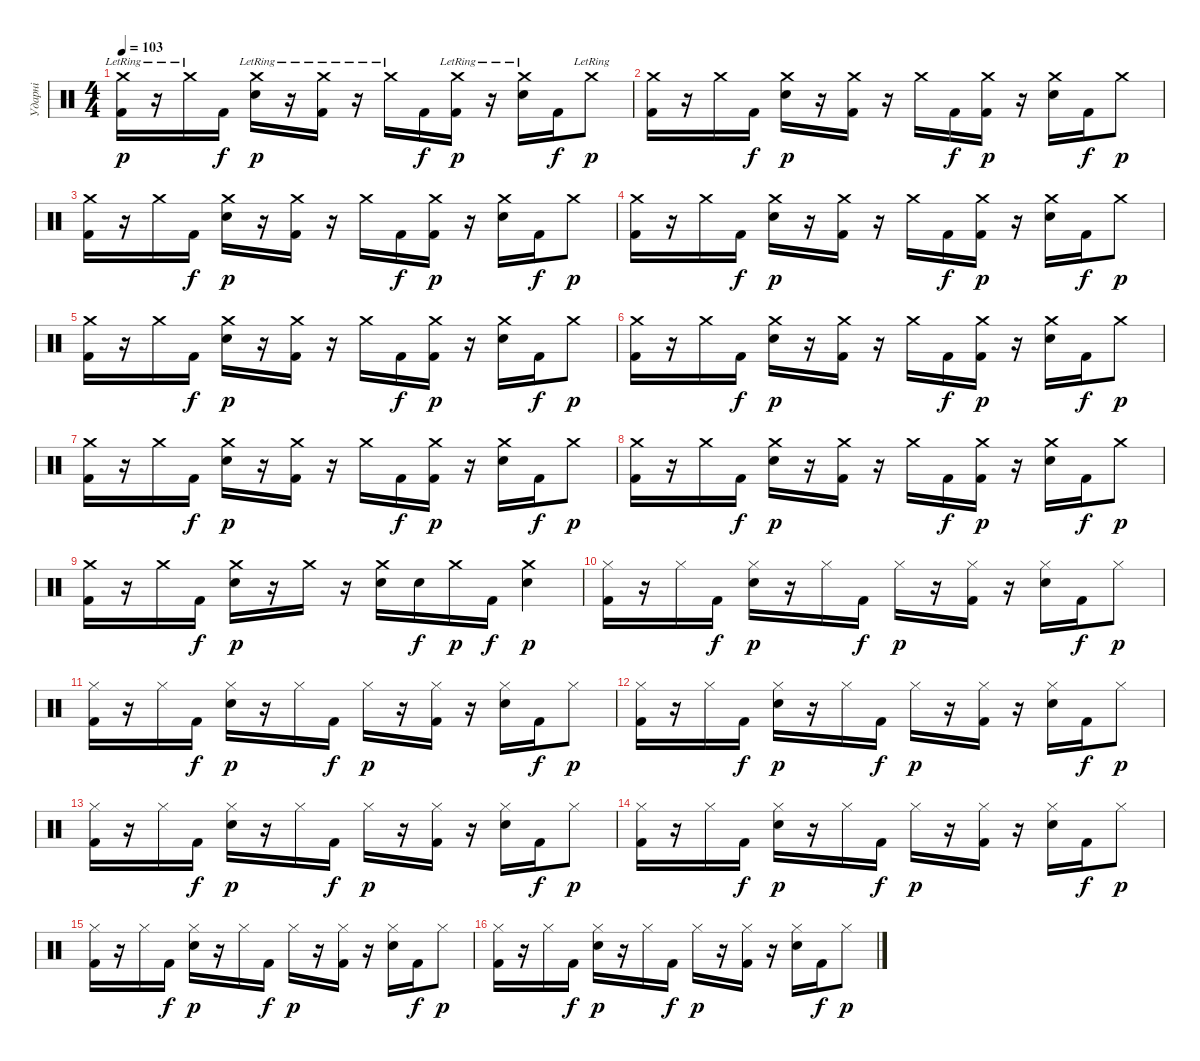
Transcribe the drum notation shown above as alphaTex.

\track ("Ударні" "Ударні") {instrument percussion}
\staff {score}
\articulation defaults
\ts (4 4)
\tempo 103
\clef neutral
\ks c
("Crash medium (hit)"{lr} "Kick (hit) 2").16{dy p} r.16 "Crash medium (hit)"{lr}.16 "Kick (hit) 2".16{dy f} ("Crash medium (hit)"{lr} "Electric Snare (hit)").16{dy p} r.16 ("Crash medium (hit)"{lr} "Kick (hit) 2").16 r.16 "Crash medium (hit)"{lr}.16 "Kick (hit) 2".16{dy f} ("Crash medium (hit)"{lr} "Kick (hit) 2").16{dy p} r.16 ("Crash medium (hit)"{lr} "Electric Snare (hit)").16 "Kick (hit) 2".16{dy f} "Crash medium (hit)"{lr}.8{dy p} |
("Crash medium (hit)" "Kick (hit) 2").16 r.16 "Crash medium (hit)".16 "Kick (hit) 2".16{dy f} ("Crash medium (hit)" "Electric Snare (hit)").16{dy p} r.16 ("Crash medium (hit)" "Kick (hit) 2").16 r.16 "Crash medium (hit)".16 "Kick (hit) 2".16{dy f} ("Crash medium (hit)" "Kick (hit) 2").16{dy p} r.16 ("Crash medium (hit)" "Electric Snare (hit)").16 "Kick (hit) 2".16{dy f} "Crash medium (hit)".8{dy p} |
("Crash medium (hit)" "Kick (hit) 2").16 r.16 "Crash medium (hit)".16 "Kick (hit) 2".16{dy f} ("Crash medium (hit)" "Electric Snare (hit)").16{dy p} r.16 ("Crash medium (hit)" "Kick (hit) 2").16 r.16 "Crash medium (hit)".16 "Kick (hit) 2".16{dy f} ("Crash medium (hit)" "Kick (hit) 2").16{dy p} r.16 ("Crash medium (hit)" "Electric Snare (hit)").16 "Kick (hit) 2".16{dy f} "Crash medium (hit)".8{dy p} |
("Crash medium (hit)" "Kick (hit) 2").16 r.16 "Crash medium (hit)".16 "Kick (hit) 2".16{dy f} ("Crash medium (hit)" "Electric Snare (hit)").16{dy p} r.16 ("Crash medium (hit)" "Kick (hit) 2").16 r.16 "Crash medium (hit)".16 "Kick (hit) 2".16{dy f} ("Crash medium (hit)" "Kick (hit) 2").16{dy p} r.16 ("Crash medium (hit)" "Electric Snare (hit)").16 "Kick (hit) 2".16{dy f} "Crash medium (hit)".8{dy p} |
("Crash medium (hit)" "Kick (hit) 2").16 r.16 "Crash medium (hit)".16 "Kick (hit) 2".16{dy f} ("Crash medium (hit)" "Electric Snare (hit)").16{dy p} r.16 ("Crash medium (hit)" "Kick (hit) 2").16 r.16 "Crash medium (hit)".16 "Kick (hit) 2".16{dy f} ("Crash medium (hit)" "Kick (hit) 2").16{dy p} r.16 ("Crash medium (hit)" "Electric Snare (hit)").16 "Kick (hit) 2".16{dy f} "Crash medium (hit)".8{dy p} |
("Crash medium (hit)" "Kick (hit) 2").16 r.16 "Crash medium (hit)".16 "Kick (hit) 2".16{dy f} ("Crash medium (hit)" "Electric Snare (hit)").16{dy p} r.16 ("Crash medium (hit)" "Kick (hit) 2").16 r.16 "Crash medium (hit)".16 "Kick (hit) 2".16{dy f} ("Crash medium (hit)" "Kick (hit) 2").16{dy p} r.16 ("Crash medium (hit)" "Electric Snare (hit)").16 "Kick (hit) 2".16{dy f} "Crash medium (hit)".8{dy p} |
("Crash medium (hit)" "Kick (hit) 2").16 r.16 "Crash medium (hit)".16 "Kick (hit) 2".16{dy f} ("Crash medium (hit)" "Electric Snare (hit)").16{dy p} r.16 ("Crash medium (hit)" "Kick (hit) 2").16 r.16 "Crash medium (hit)".16 "Kick (hit) 2".16{dy f} ("Crash medium (hit)" "Kick (hit) 2").16{dy p} r.16 ("Crash medium (hit)" "Electric Snare (hit)").16 "Kick (hit) 2".16{dy f} "Crash medium (hit)".8{dy p} |
("Crash medium (hit)" "Kick (hit) 2").16 r.16 "Crash medium (hit)".16 "Kick (hit) 2".16{dy f} ("Crash medium (hit)" "Electric Snare (hit)").16{dy p} r.16 ("Crash medium (hit)" "Kick (hit) 2").16 r.16 "Crash medium (hit)".16 "Kick (hit) 2".16{dy f} ("Crash medium (hit)" "Kick (hit) 2").16{dy p} r.16 ("Crash medium (hit)" "Electric Snare (hit)").16 "Kick (hit) 2".16{dy f} "Crash medium (hit)".8{dy p} |
("Crash medium (hit)" "Kick (hit) 2").16 r.16 "Crash medium (hit)".16 "Kick (hit) 2".16{dy f} ("Crash medium (hit)" "Electric Snare (hit)").16{dy p} r.16 "Crash medium (hit)".16 r.16 ("Crash medium (hit)" "Electric Snare (hit)").16 "Electric Snare (hit)".16{dy f} "Crash medium (hit)".16{dy p} "Kick (hit) 2".16{dy f} ("Crash medium (hit)" "Electric Snare (hit)").4{dy p} |
("Hi-Hat (closed)" "Kick (hit) 2").16 r.16 "Hi-Hat (closed)".16 "Kick (hit) 2".16{dy f} ("Hi-Hat (closed)" "Electric Snare (hit)").16{dy p} r.16 "Hi-Hat (closed)".16 "Kick (hit) 2".16{dy f} "Hi-Hat (closed)".16{dy p} r.16 ("Hi-Hat (closed)" "Kick (hit) 2").16 r.16 ("Hi-Hat (closed)" "Electric Snare (hit)").16 "Kick (hit) 2".16{dy f} "Hi-Hat (closed)".8{dy p} |
("Hi-Hat (closed)" "Kick (hit) 2").16 r.16 "Hi-Hat (closed)".16 "Kick (hit) 2".16{dy f} ("Hi-Hat (closed)" "Electric Snare (hit)").16{dy p} r.16 "Hi-Hat (closed)".16 "Kick (hit) 2".16{dy f} "Hi-Hat (closed)".16{dy p} r.16 ("Hi-Hat (closed)" "Kick (hit) 2").16 r.16 ("Hi-Hat (closed)" "Electric Snare (hit)").16 "Kick (hit) 2".16{dy f} "Hi-Hat (closed)".8{dy p} |
("Hi-Hat (closed)" "Kick (hit) 2").16 r.16 "Hi-Hat (closed)".16 "Kick (hit) 2".16{dy f} ("Hi-Hat (closed)" "Electric Snare (hit)").16{dy p} r.16 "Hi-Hat (closed)".16 "Kick (hit) 2".16{dy f} "Hi-Hat (closed)".16{dy p} r.16 ("Hi-Hat (closed)" "Kick (hit) 2").16 r.16 ("Hi-Hat (closed)" "Electric Snare (hit)").16 "Kick (hit) 2".16{dy f} "Hi-Hat (closed)".8{dy p} |
("Hi-Hat (closed)" "Kick (hit) 2").16 r.16 "Hi-Hat (closed)".16 "Kick (hit) 2".16{dy f} ("Hi-Hat (closed)" "Electric Snare (hit)").16{dy p} r.16 "Hi-Hat (closed)".16 "Kick (hit) 2".16{dy f} "Hi-Hat (closed)".16{dy p} r.16 ("Hi-Hat (closed)" "Kick (hit) 2").16 r.16 ("Hi-Hat (closed)" "Electric Snare (hit)").16 "Kick (hit) 2".16{dy f} "Hi-Hat (closed)".8{dy p} |
("Hi-Hat (closed)" "Kick (hit) 2").16 r.16 "Hi-Hat (closed)".16 "Kick (hit) 2".16{dy f} ("Hi-Hat (closed)" "Electric Snare (hit)").16{dy p} r.16 "Hi-Hat (closed)".16 "Kick (hit) 2".16{dy f} "Hi-Hat (closed)".16{dy p} r.16 ("Hi-Hat (closed)" "Kick (hit) 2").16 r.16 ("Hi-Hat (closed)" "Electric Snare (hit)").16 "Kick (hit) 2".16{dy f} "Hi-Hat (closed)".8{dy p} |
("Hi-Hat (closed)" "Kick (hit) 2").16 r.16 "Hi-Hat (closed)".16 "Kick (hit) 2".16{dy f} ("Hi-Hat (closed)" "Electric Snare (hit)").16{dy p} r.16 "Hi-Hat (closed)".16 "Kick (hit) 2".16{dy f} "Hi-Hat (closed)".16{dy p} r.16 ("Hi-Hat (closed)" "Kick (hit) 2").16 r.16 ("Hi-Hat (closed)" "Electric Snare (hit)").16 "Kick (hit) 2".16{dy f} "Hi-Hat (closed)".8{dy p} |
("Hi-Hat (closed)" "Kick (hit) 2").16 r.16 "Hi-Hat (closed)".16 "Kick (hit) 2".16{dy f} ("Hi-Hat (closed)" "Electric Snare (hit)").16{dy p} r.16 "Hi-Hat (closed)".16 "Kick (hit) 2".16{dy f} "Hi-Hat (closed)".16{dy p} r.16 ("Hi-Hat (closed)" "Kick (hit) 2").16 r.16 ("Hi-Hat (closed)" "Electric Snare (hit)").16 "Kick (hit) 2".16{dy f} "Hi-Hat (closed)".8{dy p}
